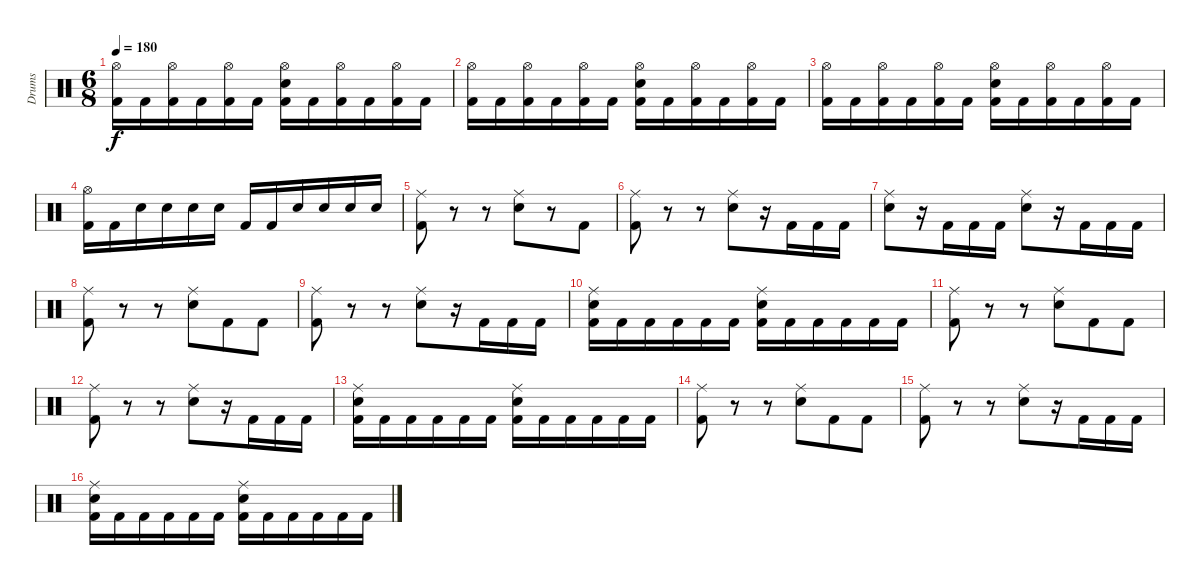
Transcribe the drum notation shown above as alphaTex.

\track ("Drums" "Drums") {instrument percussion}
\staff {score}
\articulation defaults
\ts (6 8)
\tempo 180
\clef neutral
\ks c
("Kick (hit) 2" "Hi-Hat (open)").16{dy f} "Kick (hit) 2".16 ("Kick (hit) 2" "Hi-Hat (open)").16 "Kick (hit) 2".16 ("Kick (hit) 2" "Hi-Hat (open)").16 "Kick (hit) 2".16 ("Kick (hit) 2" "Electric Snare (hit)" "Hi-Hat (open)").16 "Kick (hit) 2".16 ("Kick (hit) 2" "Hi-Hat (open)").16 "Kick (hit) 2".16 ("Kick (hit) 2" "Hi-Hat (open)").16 "Kick (hit) 2".16 |
("Kick (hit) 2" "Hi-Hat (open)").16 "Kick (hit) 2".16 ("Kick (hit) 2" "Hi-Hat (open)").16 "Kick (hit) 2".16 ("Kick (hit) 2" "Hi-Hat (open)").16 "Kick (hit) 2".16 ("Kick (hit) 2" "Electric Snare (hit)" "Hi-Hat (open)").16 "Kick (hit) 2".16 ("Kick (hit) 2" "Hi-Hat (open)").16 "Kick (hit) 2".16 ("Kick (hit) 2" "Hi-Hat (open)").16 "Kick (hit) 2".16 |
("Kick (hit) 2" "Hi-Hat (open)").16 "Kick (hit) 2".16 ("Kick (hit) 2" "Hi-Hat (open)").16 "Kick (hit) 2".16 ("Kick (hit) 2" "Hi-Hat (open)").16 "Kick (hit) 2".16 ("Kick (hit) 2" "Electric Snare (hit)" "Hi-Hat (open)").16 "Kick (hit) 2".16 ("Kick (hit) 2" "Hi-Hat (open)").16 "Kick (hit) 2".16 ("Kick (hit) 2" "Hi-Hat (open)").16 "Kick (hit) 2".16 |
("Kick (hit) 2" "Hi-Hat (open)").16 "Kick (hit) 2".16 "Electric Snare (hit)".16 "Electric Snare (hit)".16 "Electric Snare (hit)".16 "Electric Snare (hit)".16 "Kick (hit) 2".16 "Kick (hit) 2".16 "Electric Snare (hit)".16 "Electric Snare (hit)".16 "Electric Snare (hit)".16 "Electric Snare (hit)".16 |
("Kick (hit) 2" "Ride (middle)").8 r.8 r.8 ("Electric Snare (hit)" "Ride (middle)").8 r.8 "Kick (hit) 2".8 |
("Kick (hit) 2" "Ride (middle)").8 r.8 r.8 ("Electric Snare (hit)" "Ride (middle)").8 r.16 "Kick (hit) 2".16 "Kick (hit) 2".16 "Kick (hit) 2".16 |
("Electric Snare (hit)" "Ride (middle)").8 r.16 "Kick (hit) 2".16 "Kick (hit) 2".16 "Kick (hit) 2".16 ("Electric Snare (hit)" "Ride (middle)").8 r.16 "Kick (hit) 2".16 "Kick (hit) 2".16 "Kick (hit) 2".16 |
("Kick (hit) 2" "Ride (middle)").8 r.8 r.8 ("Electric Snare (hit)" "Ride (middle)").8 "Kick (hit) 2".8 "Kick (hit) 2".8 |
("Kick (hit) 2" "Ride (middle)").8 r.8 r.8 ("Electric Snare (hit)" "Ride (middle)").8 r.16 "Kick (hit) 2".16 "Kick (hit) 2".16 "Kick (hit) 2".16 |
("Kick (hit) 2" "Electric Snare (hit)" "Ride (middle)").16 "Kick (hit) 2".16 "Kick (hit) 2".16 "Kick (hit) 2".16 "Kick (hit) 2".16 "Kick (hit) 2".16 ("Kick (hit) 2" "Electric Snare (hit)" "Ride (middle)").16 "Kick (hit) 2".16 "Kick (hit) 2".16 "Kick (hit) 2".16 "Kick (hit) 2".16 "Kick (hit) 2".16 |
("Kick (hit) 2" "Ride (middle)").8 r.8 r.8 ("Electric Snare (hit)" "Ride (middle)").8 "Kick (hit) 2".8 "Kick (hit) 2".8 |
("Kick (hit) 2" "Ride (middle)").8 r.8 r.8 ("Electric Snare (hit)" "Ride (middle)").8 r.16 "Kick (hit) 2".16 "Kick (hit) 2".16 "Kick (hit) 2".16 |
("Kick (hit) 2" "Electric Snare (hit)" "Ride (middle)").16 "Kick (hit) 2".16 "Kick (hit) 2".16 "Kick (hit) 2".16 "Kick (hit) 2".16 "Kick (hit) 2".16 ("Kick (hit) 2" "Electric Snare (hit)" "Ride (middle)").16 "Kick (hit) 2".16 "Kick (hit) 2".16 "Kick (hit) 2".16 "Kick (hit) 2".16 "Kick (hit) 2".16 |
("Kick (hit) 2" "Ride (middle)").8 r.8 r.8 ("Electric Snare (hit)" "Ride (middle)").8 "Kick (hit) 2".8 "Kick (hit) 2".8 |
("Kick (hit) 2" "Ride (middle)").8 r.8 r.8 ("Electric Snare (hit)" "Ride (middle)").8 r.16 "Kick (hit) 2".16 "Kick (hit) 2".16 "Kick (hit) 2".16 |
("Kick (hit) 2" "Electric Snare (hit)" "Ride (middle)").16 "Kick (hit) 2".16 "Kick (hit) 2".16 "Kick (hit) 2".16 "Kick (hit) 2".16 "Kick (hit) 2".16 ("Kick (hit) 2" "Electric Snare (hit)" "Ride (middle)").16 "Kick (hit) 2".16 "Kick (hit) 2".16 "Kick (hit) 2".16 "Kick (hit) 2".16 "Kick (hit) 2".16
